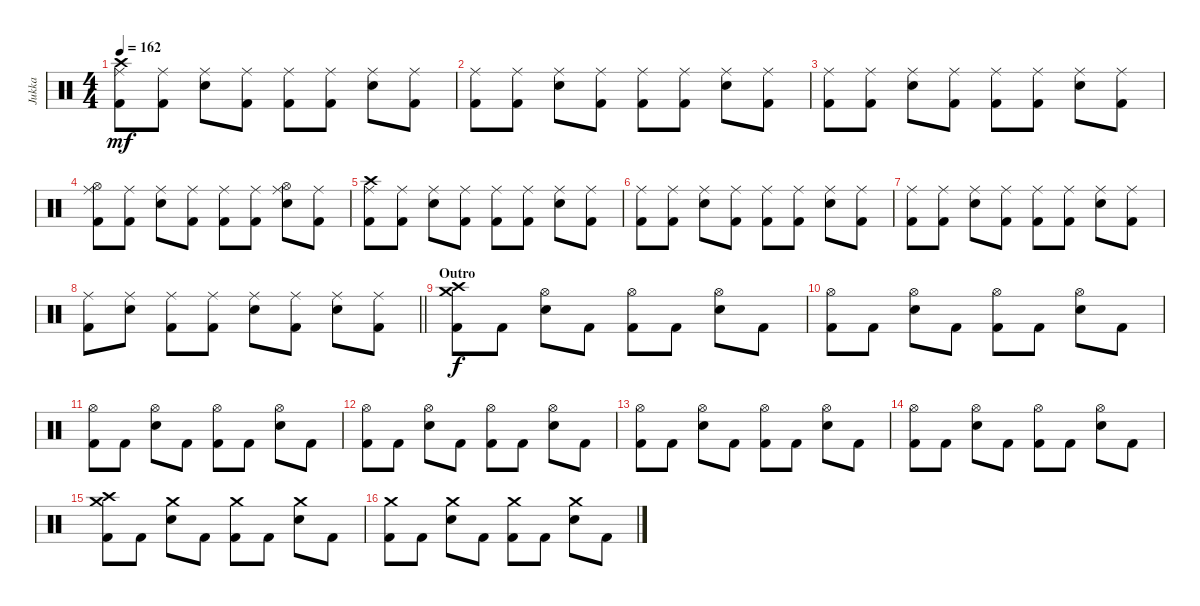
\track ("Jukka" "Jukka") {instrument percussion}
\staff {score}
\articulation defaults
\ts (4 4)
\tempo 162
\clef neutral
\ks c
("Crash high (hit)" "Ride (middle)" "Kick (hit) 2").8{dy mf} ("Ride (middle)" "Kick (hit) 2").8 ("Ride (middle)" "Electric Snare (hit)").8 ("Ride (middle)" "Kick (hit) 2").8 ("Ride (middle)" "Kick (hit) 2").8 ("Ride (middle)" "Kick (hit) 2").8 ("Ride (middle)" "Electric Snare (hit)").8 ("Ride (middle)" "Kick (hit) 2").8 |
("Ride (middle)" "Kick (hit) 2").8 ("Ride (middle)" "Kick (hit) 2").8 ("Ride (middle)" "Electric Snare (hit)").8 ("Ride (middle)" "Kick (hit) 2").8 ("Ride (middle)" "Kick (hit) 2").8 ("Ride (middle)" "Kick (hit) 2").8 ("Ride (middle)" "Electric Snare (hit)").8 ("Ride (middle)" "Kick (hit) 2").8 |
("Ride (middle)" "Kick (hit) 2").8 ("Ride (middle)" "Kick (hit) 2").8 ("Ride (middle)" "Electric Snare (hit)").8 ("Ride (middle)" "Kick (hit) 2").8 ("Ride (middle)" "Kick (hit) 2").8 ("Ride (middle)" "Kick (hit) 2").8 ("Ride (middle)" "Electric Snare (hit)").8 ("Ride (middle)" "Kick (hit) 2").8 |
("Hi-Hat (open)" "Ride (middle)" "Kick (hit) 2").8 ("Ride (middle)" "Kick (hit) 2").8 ("Ride (middle)" "Electric Snare (hit)").8 ("Ride (middle)" "Kick (hit) 2").8 ("Ride (middle)" "Kick (hit) 2").8 ("Ride (middle)" "Kick (hit) 2").8 ("Hi-Hat (open)" "Ride (middle)" "Electric Snare (hit)").8 ("Ride (middle)" "Kick (hit) 2").8 |
("Crash high (hit)" "Ride (middle)" "Kick (hit) 2").8 ("Ride (middle)" "Kick (hit) 2").8 ("Ride (middle)" "Electric Snare (hit)").8 ("Ride (middle)" "Kick (hit) 2").8 ("Ride (middle)" "Kick (hit) 2").8 ("Ride (middle)" "Kick (hit) 2").8 ("Ride (middle)" "Electric Snare (hit)").8 ("Ride (middle)" "Kick (hit) 2").8 |
("Ride (middle)" "Kick (hit) 2").8 ("Ride (middle)" "Kick (hit) 2").8 ("Ride (middle)" "Electric Snare (hit)").8 ("Ride (middle)" "Kick (hit) 2").8 ("Ride (middle)" "Kick (hit) 2").8 ("Ride (middle)" "Kick (hit) 2").8 ("Ride (middle)" "Electric Snare (hit)").8 ("Ride (middle)" "Kick (hit) 2").8 |
("Ride (middle)" "Kick (hit) 2").8 ("Ride (middle)" "Kick (hit) 2").8 ("Ride (middle)" "Electric Snare (hit)").8 ("Ride (middle)" "Kick (hit) 2").8 ("Ride (middle)" "Kick (hit) 2").8 ("Ride (middle)" "Kick (hit) 2").8 ("Ride (middle)" "Electric Snare (hit)").8 ("Ride (middle)" "Kick (hit) 2").8 |
\barLineRight lightlight
("Ride (middle)" "Kick (hit) 2").8 ("Ride (middle)" "Electric Snare (hit)").8 ("Ride (middle)" "Kick (hit) 2").8 ("Ride (middle)" "Kick (hit) 2").8 ("Ride (middle)" "Electric Snare (hit)").8 ("Ride (middle)" "Kick (hit) 2").8 ("Ride (middle)" "Electric Snare (hit)").8 ("Ride (middle)" "Kick (hit) 2").8 |
\section ("" "Outro")
("Crash medium (hit)" "Crash high (hit)" "Kick (hit) 2").8{dy f} "Kick (hit) 2".8 ("Hi-Hat (open)" "Electric Snare (hit)").8 "Kick (hit) 2".8 ("Hi-Hat (open)" "Kick (hit) 2").8 "Kick (hit) 2".8 ("Hi-Hat (open)" "Electric Snare (hit)").8 "Kick (hit) 2".8 |
("Hi-Hat (open)" "Kick (hit) 2").8 "Kick (hit) 2".8 ("Hi-Hat (open)" "Electric Snare (hit)").8 "Kick (hit) 2".8 ("Hi-Hat (open)" "Kick (hit) 2").8 "Kick (hit) 2".8 ("Hi-Hat (open)" "Electric Snare (hit)").8 "Kick (hit) 2".8 |
("Hi-Hat (open)" "Kick (hit) 2").8 "Kick (hit) 2".8 ("Hi-Hat (open)" "Electric Snare (hit)").8 "Kick (hit) 2".8 ("Hi-Hat (open)" "Kick (hit) 2").8 "Kick (hit) 2".8 ("Hi-Hat (open)" "Electric Snare (hit)").8 "Kick (hit) 2".8 |
("Hi-Hat (open)" "Kick (hit) 2").8 "Kick (hit) 2".8 ("Hi-Hat (open)" "Electric Snare (hit)").8 "Kick (hit) 2".8 ("Hi-Hat (open)" "Kick (hit) 2").8 "Kick (hit) 2".8 ("Hi-Hat (open)" "Electric Snare (hit)").8 "Kick (hit) 2".8 |
("Hi-Hat (open)" "Kick (hit) 2").8 "Kick (hit) 2".8 ("Hi-Hat (open)" "Electric Snare (hit)").8 "Kick (hit) 2".8 ("Hi-Hat (open)" "Kick (hit) 2").8 "Kick (hit) 2".8 ("Hi-Hat (open)" "Electric Snare (hit)").8 "Kick (hit) 2".8 |
("Hi-Hat (open)" "Kick (hit) 2").8 "Kick (hit) 2".8 ("Hi-Hat (open)" "Electric Snare (hit)").8 "Kick (hit) 2".8 ("Hi-Hat (open)" "Kick (hit) 2").8 "Kick (hit) 2".8 ("Hi-Hat (open)" "Electric Snare (hit)").8 "Kick (hit) 2".8 |
("Crash high (hit)" "Crash medium (hit)" "Kick (hit) 2").8 "Kick (hit) 2".8 ("Crash medium (hit)" "Electric Snare (hit)").8 "Kick (hit) 2".8 ("Crash medium (hit)" "Kick (hit) 2").8 "Kick (hit) 2".8 ("Crash medium (hit)" "Electric Snare (hit)").8 "Kick (hit) 2".8 |
("Crash medium (hit)" "Kick (hit) 2").8 "Kick (hit) 2".8 ("Crash medium (hit)" "Electric Snare (hit)").8 "Kick (hit) 2".8 ("Crash medium (hit)" "Kick (hit) 2").8 "Kick (hit) 2".8 ("Crash medium (hit)" "Electric Snare (hit)").8 "Kick (hit) 2".8
